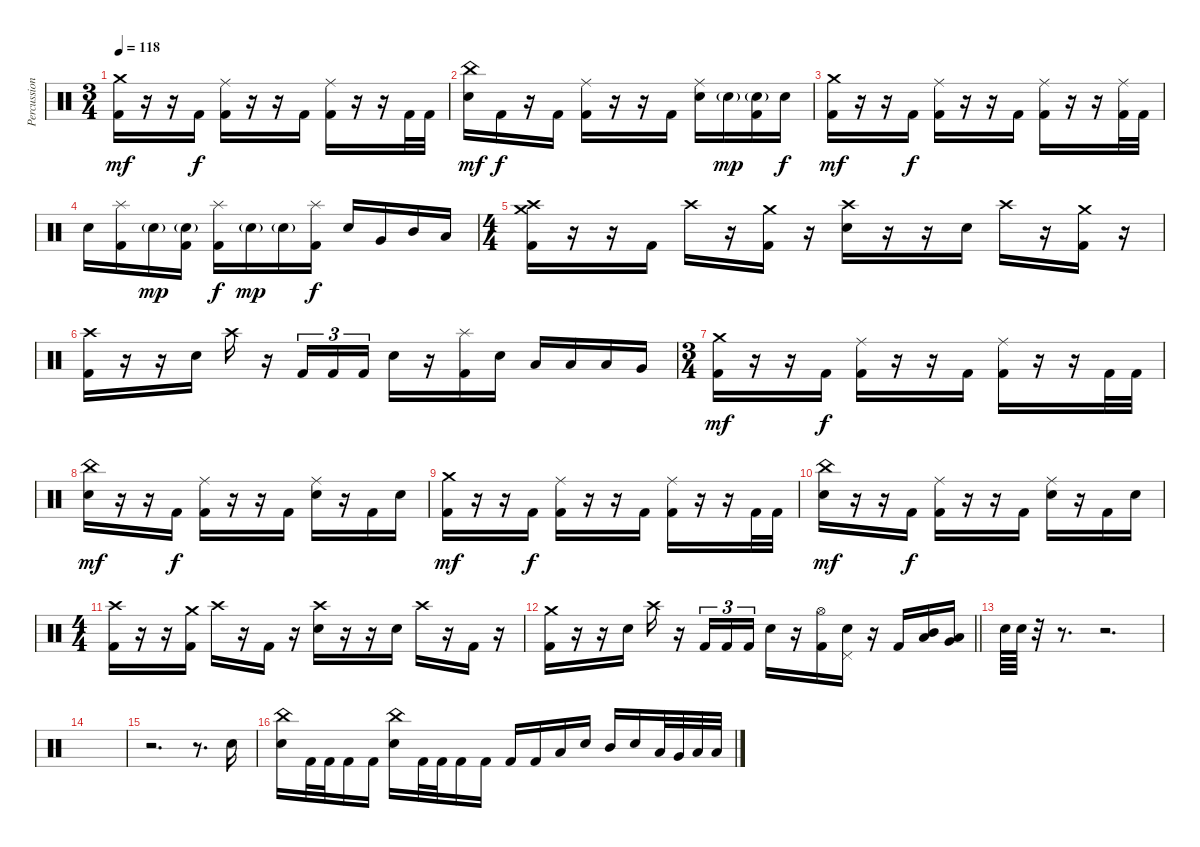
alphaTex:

\track ("Percussions" "Percussion") {instrument percussion}
\staff {score}
\articulation defaults
\ts (3 4)
\section ("" "")
\tempo 118
\clef neutral
\ks c
("Crash medium (hit)" "Kick (hit) 2").16{dy mf} r.16 r.16 "Kick (hit) 2".16{dy f} ("Ride (middle)" "Kick (hit) 2").16 r.16 r.16 "Kick (hit) 2".16 ("Ride (middle)" "Kick (hit) 2").16 r.16 r.16 "Kick (hit) 2".32 "Kick (hit) 2".32 |
("China (hit)" "Electric Snare (hit)").16{dy mf} "Kick (hit) 2".16{dy f} r.16 "Kick (hit) 2".16 ("Ride (middle)" "Kick (hit) 2").16 r.16 r.16 "Kick (hit) 2".16 ("Ride (middle)" "Electric Snare (hit)").16 "Electric Snare (hit)"{g}.16{dy mp} ("Electric Snare (hit)"{g} "Kick (hit) 2").16 "Electric Snare (hit)".16{dy f} |
("Crash medium (hit)" "Kick (hit) 2").16{dy mf} r.16 r.16 "Kick (hit) 2".16{dy f} ("Ride (middle)" "Kick (hit) 2").16 r.16 r.16 "Kick (hit) 2".16 ("Ride (middle)" "Kick (hit) 2").16 r.16 r.16 ("Ride (middle)" "Kick (hit) 2").32 "Kick (hit) 2".32 |
"Electric Snare (hit)".16 ("Splash (hit)" "Kick (hit) 2").16 "Electric Snare (hit)"{g}.16{dy mp} ("Electric Snare (hit)"{g} "Kick (hit) 2").16 ("Splash (hit)" "Kick (hit) 2").16{dy f} "Electric Snare (hit)"{g}.16{dy mp} "Electric Snare (hit)"{g}.16 ("Splash (hit)" "Kick (hit) 2").16{dy f} "Electric Snare (hit)".16 "Very Low Tom (hit)".16 "Mid Tom (hit)".16 "Low Floor Tom (hit)".16 |
\ts (4 4)
("Crash medium (hit)" "Crash high (hit)" "Kick (hit) 2").16 r.16 r.16 "Kick (hit) 2".16 "Crash high (hit)".16 r.16 ("Crash medium (hit)" "Kick (hit) 2").16 r.16 ("Crash high (hit)" "Electric Snare (hit)").16 r.16 r.16 "Electric Snare (hit)".16 "Crash high (hit)".16 r.16 ("Crash medium (hit)" "Kick (hit) 2").16 r.16 |
("Crash high (hit)" "Kick (hit) 2").16 r.16 r.16 "Electric Snare (hit)".16 "Crash high (hit)".16 r.16 "Kick (hit) 2".16{tu (3 2)} "Kick (hit) 2".16{tu (3 2)} "Kick (hit) 2".16{tu (3 2)} "Electric Snare (hit)".16 r.16 ("Splash (hit)" "Kick (hit) 2").16 "Electric Snare (hit)".16 "Low Tom (hit)".16 "Low Floor Tom (hit)".16 "Low Tom (hit)".16 "Very Low Tom (hit)".16 |
\ts (3 4)
("Crash medium (hit)" "Kick (hit) 2").16{dy mf} r.16 r.16 "Kick (hit) 2".16{dy f} ("Ride (middle)" "Kick (hit) 2").16 r.16 r.16 "Kick (hit) 2".16 ("Ride (middle)" "Kick (hit) 2").16 r.16 r.16 "Kick (hit) 2".32 "Kick (hit) 2".32 |
("China (hit)" "Electric Snare (hit)").16{dy mf} r.16 r.16 "Kick (hit) 2".16{dy f} ("Ride (middle)" "Kick (hit) 2").16 r.16 r.16 "Kick (hit) 2".16 ("Ride (middle)" "Electric Snare (hit)").16 r.16 "Kick (hit) 2".16 "Electric Snare (hit)".16 |
("Crash medium (hit)" "Kick (hit) 2").16{dy mf} r.16 r.16 "Kick (hit) 2".16{dy f} ("Ride (middle)" "Kick (hit) 2").16 r.16 r.16 "Kick (hit) 2".16 ("Ride (middle)" "Kick (hit) 2").16 r.16 r.16 "Kick (hit) 2".32 "Kick (hit) 2".32 |
("China (hit)" "Electric Snare (hit)").16{dy mf} r.16 r.16 "Kick (hit) 2".16{dy f} ("Ride (middle)" "Kick (hit) 2").16 r.16 r.16 "Kick (hit) 2".16 ("Ride (middle)" "Electric Snare (hit)").16 r.16 "Kick (hit) 2".16 "Electric Snare (hit)".16 |
\ts (4 4)
("Crash high (hit)" "Kick (hit) 2").16 r.16 r.16 ("Crash medium (hit)" "Kick (hit) 2").16 "Crash high (hit)".16 r.16 "Kick (hit) 2".16 r.16 ("Crash high (hit)" "Electric Snare (hit)").16 r.16 r.16 "Electric Snare (hit)".16 "Crash high (hit)".16 r.16 "Kick (hit) 2".16 r.16 |
\barLineRight lightlight
("Crash medium (hit)" "Kick (hit) 2").16 r.16 r.16 "Electric Snare (hit)".16 "Crash high (hit)".16 r.16 "Kick (hit) 2".16{tu (3 2)} "Kick (hit) 2".16{tu (3 2)} "Kick (hit) 2".16{tu (3 2)} "Electric Snare (hit)".16 r.16 ("Hi-Hat (open)" "Kick (hit) 2").16 ("Pedal Hi-Hat (hit)" "Electric Snare (hit)").16 r.16 "Kick (hit) 2".16 ("Mid Tom (hit)" "Low Tom (hit)").16 ("Very Low Tom (hit)" "Low Floor Tom (hit)").16 |
\section ("" "")
"Electric Snare (hit)".64 "Electric Snare (hit)".64 r.32 r.8{d} r.2{d} |
|
r.2{d} r.8{d} "Electric Snare (hit)".16 |
("China (hit)" "Electric Snare (hit)").16 "Kick (hit) 2".32 "Kick (hit) 2".32 "Kick (hit) 2".16 "Kick (hit) 2".16 ("China (hit)" "Electric Snare (hit)").16 "Kick (hit) 2".32 "Kick (hit) 2".32 "Kick (hit) 2".16 "Kick (hit) 2".16 "Kick (hit) 2".16 "Kick (hit) 2".16 "Low Tom (hit)".16 "Electric Snare (hit)".16 "Mid Tom (hit)".16 "Electric Snare (hit)".16 "Low Tom (hit)".32 "Very Low Tom (hit)".32 "Low Tom (hit)".32 "Low Floor Tom (hit)".32
